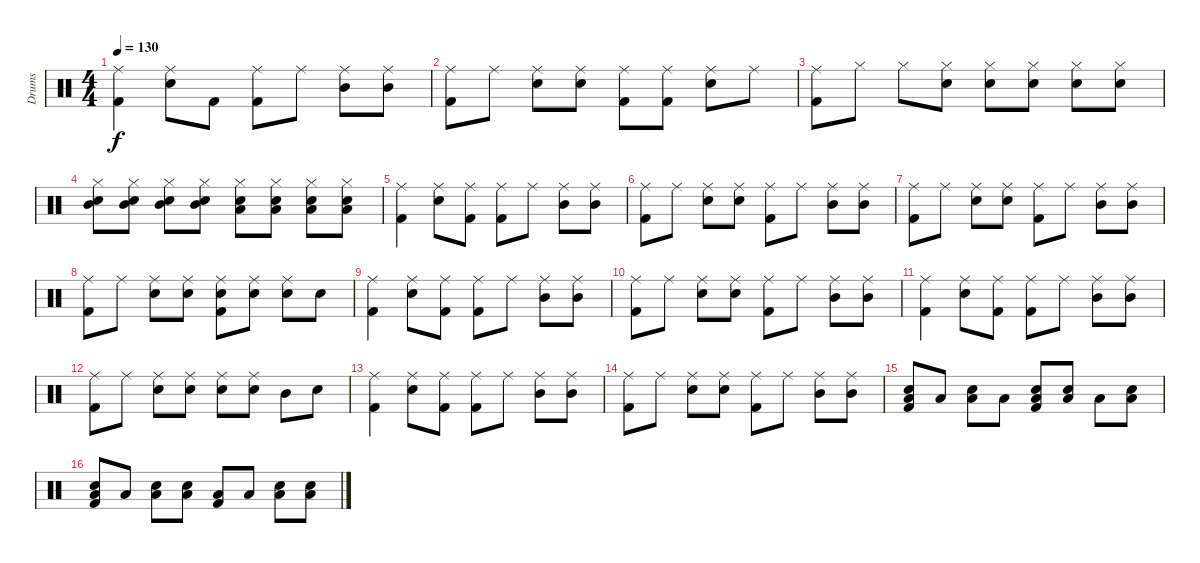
\track ("Drums" "Drums") {instrument percussion}
\staff {score}
\articulation defaults
\ts (4 4)
\tempo 130
\clef neutral
\ks c
("Ride (middle)" "Kick (hit) 2").4{dy f} ("Ride (middle)" "Snare (hit) 2").8 "Kick (hit) 2".8 ("Ride (middle)" "Kick (hit) 2").8 "Ride (middle)".8 ("Ride (middle)" "Mid Tom (hit)").8 ("Ride (middle)" "Mid Tom (hit)").8 |
("Ride (middle)" "Kick (hit) 2").8 "Ride (middle)".8 ("Ride (middle)" "Snare (hit) 2").8 ("Ride (middle)" "Snare (hit) 2").8 ("Ride (middle)" "Kick (hit) 2").8 ("Ride (middle)" "Kick (hit) 2").8 ("Ride (middle)" "Snare (hit) 2").8 "Ride (middle)".8 |
("Ride (middle)" "Kick (hit) 2").8 "Hi-Hat (closed)".8 "Hi-Hat (closed)".8 ("Hi-Hat (closed)" "Snare (hit) 2").8 ("Hi-Hat (closed)" "Snare (hit) 2").8 ("Hi-Hat (closed)" "Snare (hit) 2").8 ("Hi-Hat (closed)" "Snare (hit) 2").8 ("Hi-Hat (closed)" "Snare (hit) 2").8 |
("Hi-Hat (closed)" "Mid Tom (hit)" "Snare (hit) 2").8 ("Hi-Hat (closed)" "Mid Tom (hit)" "Snare (hit) 2").8 ("Hi-Hat (closed)" "Mid Tom (hit)" "Snare (hit) 2").8 ("Hi-Hat (closed)" "Mid Tom (hit)" "Snare (hit) 2").8 ("Hi-Hat (closed)" "Low Tom (hit)" "Snare (hit) 2").8 ("Hi-Hat (closed)" "Low Tom (hit)" "Snare (hit) 2").8 ("Hi-Hat (closed)" "Low Tom (hit)" "Snare (hit) 2").8 ("Hi-Hat (closed)" "Low Tom (hit)" "Snare (hit) 2").8 |
("Ride (middle)" "Kick (hit) 2").4 ("Ride (middle)" "Snare (hit) 2").8 ("Ride (middle)" "Kick (hit) 2").8 ("Ride (middle)" "Kick (hit) 2").8 "Ride (middle)".8 ("Ride (middle)" "Mid Tom (hit)").8 ("Ride (middle)" "Mid Tom (hit)").8 |
("Ride (middle)" "Kick (hit) 2").8 "Ride (middle)".8 ("Ride (middle)" "Snare (hit) 2").8 ("Ride (middle)" "Snare (hit) 2").8 ("Ride (middle)" "Kick (hit) 2").8 "Ride (middle)".8 ("Ride (middle)" "Mid Tom (hit)").8 ("Ride (middle)" "Mid Tom (hit)").8 |
("Ride (middle)" "Kick (hit) 2").8 "Ride (middle)".8 ("Ride (middle)" "Snare (hit) 2").8 ("Ride (middle)" "Snare (hit) 2").8 ("Ride (middle)" "Kick (hit) 2").8 "Ride (middle)".8 ("Ride (middle)" "Mid Tom (hit)").8 ("Ride (middle)" "Mid Tom (hit)").8 |
("Ride (middle)" "Kick (hit) 2").8 "Ride (middle)".8 ("Ride (middle)" "Snare (hit) 2").8 ("Ride (middle)" "Snare (hit) 2").8 ("Ride (middle)" "Snare (hit) 2" "Kick (hit) 2").8 ("Ride (middle)" "Snare (hit) 2").8 ("Ride (middle)" "Snare (hit) 2").8 "Snare (hit) 2".8 |
("Ride (middle)" "Kick (hit) 2").4 ("Ride (middle)" "Snare (hit) 2").8 ("Ride (middle)" "Kick (hit) 2").8 ("Ride (middle)" "Kick (hit) 2").8 "Ride (middle)".8 ("Ride (middle)" "Mid Tom (hit)").8 ("Ride (middle)" "Mid Tom (hit)").8 |
("Ride (middle)" "Kick (hit) 2").8 "Ride (middle)".8 ("Ride (middle)" "Snare (hit) 2").8 ("Ride (middle)" "Snare (hit) 2").8 ("Ride (middle)" "Kick (hit) 2").8 "Ride (middle)".8 ("Ride (middle)" "Mid Tom (hit)").8 ("Ride (middle)" "Mid Tom (hit)").8 |
("Ride (middle)" "Kick (hit) 2").4 ("Ride (middle)" "Snare (hit) 2").8 ("Ride (middle)" "Kick (hit) 2").8 ("Ride (middle)" "Kick (hit) 2").8 "Ride (middle)".8 ("Ride (middle)" "Mid Tom (hit)").8 ("Ride (middle)" "Mid Tom (hit)").8 |
("Ride (middle)" "Kick (hit) 2").8 "Ride (middle)".8 ("Ride (middle)" "Snare (hit) 2").8 ("Ride (middle)" "Snare (hit) 2").8 ("Ride (middle)" "Snare (hit) 2").8 ("Ride (middle)" "Snare (hit) 2").8 "Mid Tom (hit)".8 "Snare (hit) 2".8 |
("Ride (middle)" "Kick (hit) 2").4 ("Ride (middle)" "Snare (hit) 2").8 ("Ride (middle)" "Kick (hit) 2").8 ("Ride (middle)" "Kick (hit) 2").8 "Ride (middle)".8 ("Ride (middle)" "Mid Tom (hit)").8 ("Ride (middle)" "Mid Tom (hit)").8 |
("Ride (middle)" "Kick (hit) 2").8 "Ride (middle)".8 ("Ride (middle)" "Snare (hit) 2").8 ("Ride (middle)" "Snare (hit) 2").8 ("Ride (middle)" "Kick (hit) 2").8 "Ride (middle)".8 ("Ride (middle)" "Mid Tom (hit)").8 ("Ride (middle)" "Mid Tom (hit)").8 |
("Low Tom (hit)" "Snare (hit) 2" "Kick (hit) 2").8 "Low Tom (hit)".8 ("Low Tom (hit)" "Snare (hit) 2").8 "Low Tom (hit)".8 ("Low Tom (hit)" "Snare (hit) 2" "Kick (hit) 2").8 ("Low Tom (hit)" "Snare (hit) 2").8 "Low Tom (hit)".8 ("Low Tom (hit)" "Snare (hit) 2").8 |
("Low Tom (hit)" "Snare (hit) 2" "Kick (hit) 2").8 "Low Tom (hit)".8 ("Low Tom (hit)" "Snare (hit) 2").8 ("Low Tom (hit)" "Snare (hit) 2").8 ("Low Tom (hit)" "Kick (hit) 2").8 "Low Tom (hit)".8 ("Low Tom (hit)" "Snare (hit) 2").8 ("Low Tom (hit)" "Snare (hit) 2").8
